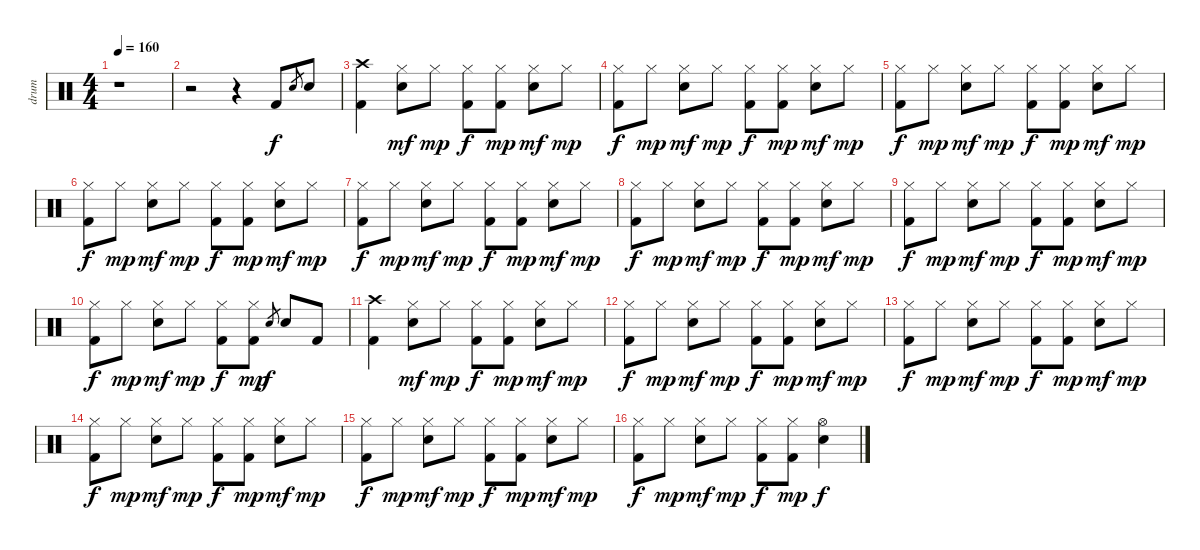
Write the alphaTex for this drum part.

\track ("drum" "drum") {instrument percussion}
\staff {score}
\articulation defaults
\ts (4 4)
\tempo 160
\clef neutral
\ks c
r.1{dy f} |
r.2 r.4 "Kick (hit) 2".8 "Electric Snare (hit)".8{gr} "Electric Snare (hit)".8 |
("Crash high (hit)" "Kick (hit) 2").4 ("Hi-Hat (closed)" "Electric Snare (hit)").8{dy mf} "Hi-Hat (closed)".8{dy mp} ("Hi-Hat (closed)" "Kick (hit) 2").8{dy f} ("Hi-Hat (closed)" "Kick (hit) 2").8{dy mp} ("Hi-Hat (closed)" "Electric Snare (hit)").8{dy mf} "Hi-Hat (closed)".8{dy mp} |
("Hi-Hat (closed)" "Kick (hit) 2").8{dy f} "Hi-Hat (closed)".8{dy mp} ("Hi-Hat (closed)" "Electric Snare (hit)").8{dy mf} "Hi-Hat (closed)".8{dy mp} ("Hi-Hat (closed)" "Kick (hit) 2").8{dy f} ("Hi-Hat (closed)" "Kick (hit) 2").8{dy mp} ("Hi-Hat (closed)" "Electric Snare (hit)").8{dy mf} "Hi-Hat (closed)".8{dy mp} |
("Hi-Hat (closed)" "Kick (hit) 2").8{dy f} "Hi-Hat (closed)".8{dy mp} ("Hi-Hat (closed)" "Electric Snare (hit)").8{dy mf} "Hi-Hat (closed)".8{dy mp} ("Hi-Hat (closed)" "Kick (hit) 2").8{dy f} ("Hi-Hat (closed)" "Kick (hit) 2").8{dy mp} ("Hi-Hat (closed)" "Electric Snare (hit)").8{dy mf} "Hi-Hat (closed)".8{dy mp} |
("Hi-Hat (closed)" "Kick (hit) 2").8{dy f} "Hi-Hat (closed)".8{dy mp} ("Hi-Hat (closed)" "Electric Snare (hit)").8{dy mf} "Hi-Hat (closed)".8{dy mp} ("Hi-Hat (closed)" "Kick (hit) 2").8{dy f} ("Hi-Hat (closed)" "Kick (hit) 2").8{dy mp} ("Hi-Hat (closed)" "Electric Snare (hit)").8{dy mf} "Hi-Hat (closed)".8{dy mp} |
("Hi-Hat (closed)" "Kick (hit) 2").8{dy f} "Hi-Hat (closed)".8{dy mp} ("Hi-Hat (closed)" "Electric Snare (hit)").8{dy mf} "Hi-Hat (closed)".8{dy mp} ("Hi-Hat (closed)" "Kick (hit) 2").8{dy f} ("Hi-Hat (closed)" "Kick (hit) 2").8{dy mp} ("Hi-Hat (closed)" "Electric Snare (hit)").8{dy mf} "Hi-Hat (closed)".8{dy mp} |
("Hi-Hat (closed)" "Kick (hit) 2").8{dy f} "Hi-Hat (closed)".8{dy mp} ("Hi-Hat (closed)" "Electric Snare (hit)").8{dy mf} "Hi-Hat (closed)".8{dy mp} ("Hi-Hat (closed)" "Kick (hit) 2").8{dy f} ("Hi-Hat (closed)" "Kick (hit) 2").8{dy mp} ("Hi-Hat (closed)" "Electric Snare (hit)").8{dy mf} "Hi-Hat (closed)".8{dy mp} |
("Hi-Hat (closed)" "Kick (hit) 2").8{dy f} "Hi-Hat (closed)".8{dy mp} ("Hi-Hat (closed)" "Electric Snare (hit)").8{dy mf} "Hi-Hat (closed)".8{dy mp} ("Hi-Hat (closed)" "Kick (hit) 2").8{dy f} ("Hi-Hat (closed)" "Kick (hit) 2").8{dy mp} ("Hi-Hat (closed)" "Electric Snare (hit)").8{dy mf} "Hi-Hat (closed)".8{dy mp} |
("Hi-Hat (closed)" "Kick (hit) 2").8{dy f} "Hi-Hat (closed)".8{dy mp} ("Hi-Hat (closed)" "Electric Snare (hit)").8{dy mf} "Hi-Hat (closed)".8{dy mp} ("Hi-Hat (closed)" "Kick (hit) 2").8{dy f} ("Hi-Hat (closed)" "Kick (hit) 2").8{dy mp} "Electric Snare (hit)".8{gr dy f} "Electric Snare (hit)".8 "Kick (hit) 2".8 |
("Crash high (hit)" "Kick (hit) 2").4 ("Hi-Hat (closed)" "Electric Snare (hit)").8{dy mf} "Hi-Hat (closed)".8{dy mp} ("Hi-Hat (closed)" "Kick (hit) 2").8{dy f} ("Hi-Hat (closed)" "Kick (hit) 2").8{dy mp} ("Hi-Hat (closed)" "Electric Snare (hit)").8{dy mf} "Hi-Hat (closed)".8{dy mp} |
("Hi-Hat (closed)" "Kick (hit) 2").8{dy f} "Hi-Hat (closed)".8{dy mp} ("Hi-Hat (closed)" "Electric Snare (hit)").8{dy mf} "Hi-Hat (closed)".8{dy mp} ("Hi-Hat (closed)" "Kick (hit) 2").8{dy f} ("Hi-Hat (closed)" "Kick (hit) 2").8{dy mp} ("Hi-Hat (closed)" "Electric Snare (hit)").8{dy mf} "Hi-Hat (closed)".8{dy mp} |
("Hi-Hat (closed)" "Kick (hit) 2").8{dy f} "Hi-Hat (closed)".8{dy mp} ("Hi-Hat (closed)" "Electric Snare (hit)").8{dy mf} "Hi-Hat (closed)".8{dy mp} ("Hi-Hat (closed)" "Kick (hit) 2").8{dy f} ("Hi-Hat (closed)" "Kick (hit) 2").8{dy mp} ("Hi-Hat (closed)" "Electric Snare (hit)").8{dy mf} "Hi-Hat (closed)".8{dy mp} |
("Hi-Hat (closed)" "Kick (hit) 2").8{dy f} "Hi-Hat (closed)".8{dy mp} ("Hi-Hat (closed)" "Electric Snare (hit)").8{dy mf} "Hi-Hat (closed)".8{dy mp} ("Hi-Hat (closed)" "Kick (hit) 2").8{dy f} ("Hi-Hat (closed)" "Kick (hit) 2").8{dy mp} ("Hi-Hat (closed)" "Electric Snare (hit)").8{dy mf} "Hi-Hat (closed)".8{dy mp} |
("Hi-Hat (closed)" "Kick (hit) 2").8{dy f} "Hi-Hat (closed)".8{dy mp} ("Hi-Hat (closed)" "Electric Snare (hit)").8{dy mf} "Hi-Hat (closed)".8{dy mp} ("Hi-Hat (closed)" "Kick (hit) 2").8{dy f} ("Hi-Hat (closed)" "Kick (hit) 2").8{dy mp} ("Hi-Hat (closed)" "Electric Snare (hit)").8{dy mf} "Hi-Hat (closed)".8{dy mp} |
("Hi-Hat (closed)" "Kick (hit) 2").8{dy f} "Hi-Hat (closed)".8{dy mp} ("Hi-Hat (closed)" "Electric Snare (hit)").8{dy mf} "Hi-Hat (closed)".8{dy mp} ("Hi-Hat (closed)" "Kick (hit) 2").8{dy f} ("Hi-Hat (closed)" "Kick (hit) 2").8{dy mp} ("Hi-Hat (open)" "Electric Snare (hit)").4{dy f}
